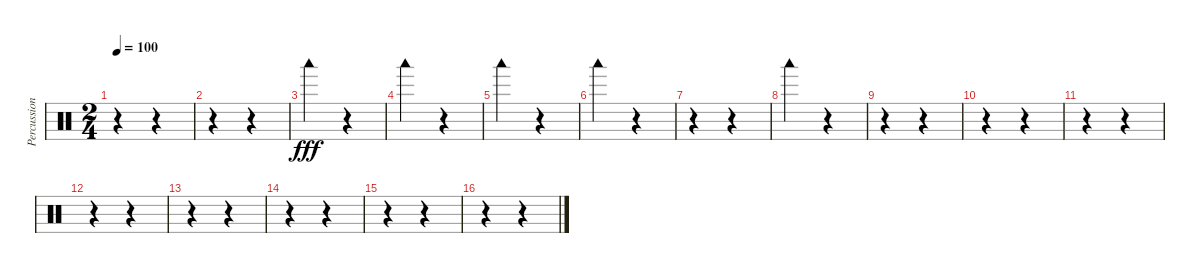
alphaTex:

\track ("Percussion" "Percussion") {instrument percussion}
\staff {score}
\articulation defaults
\ts (2 4)
\tempo 100
\clef neutral
\ks c
r.4{dy fff} r.4 |
r.4 r.4 |
"Woodblock low (hit)".4 r.4 |
"Woodblock low (hit)".4 r.4 |
"Woodblock low (hit)".4 r.4 |
"Woodblock low (hit)".4 r.4 |
r.4 r.4 |
"Woodblock low (hit)".4 r.4 |
r.4 r.4 |
r.4 r.4 |
r.4 r.4 |
r.4 r.4 |
r.4 r.4 |
r.4 r.4 |
r.4 r.4 |
r.4 r.4
